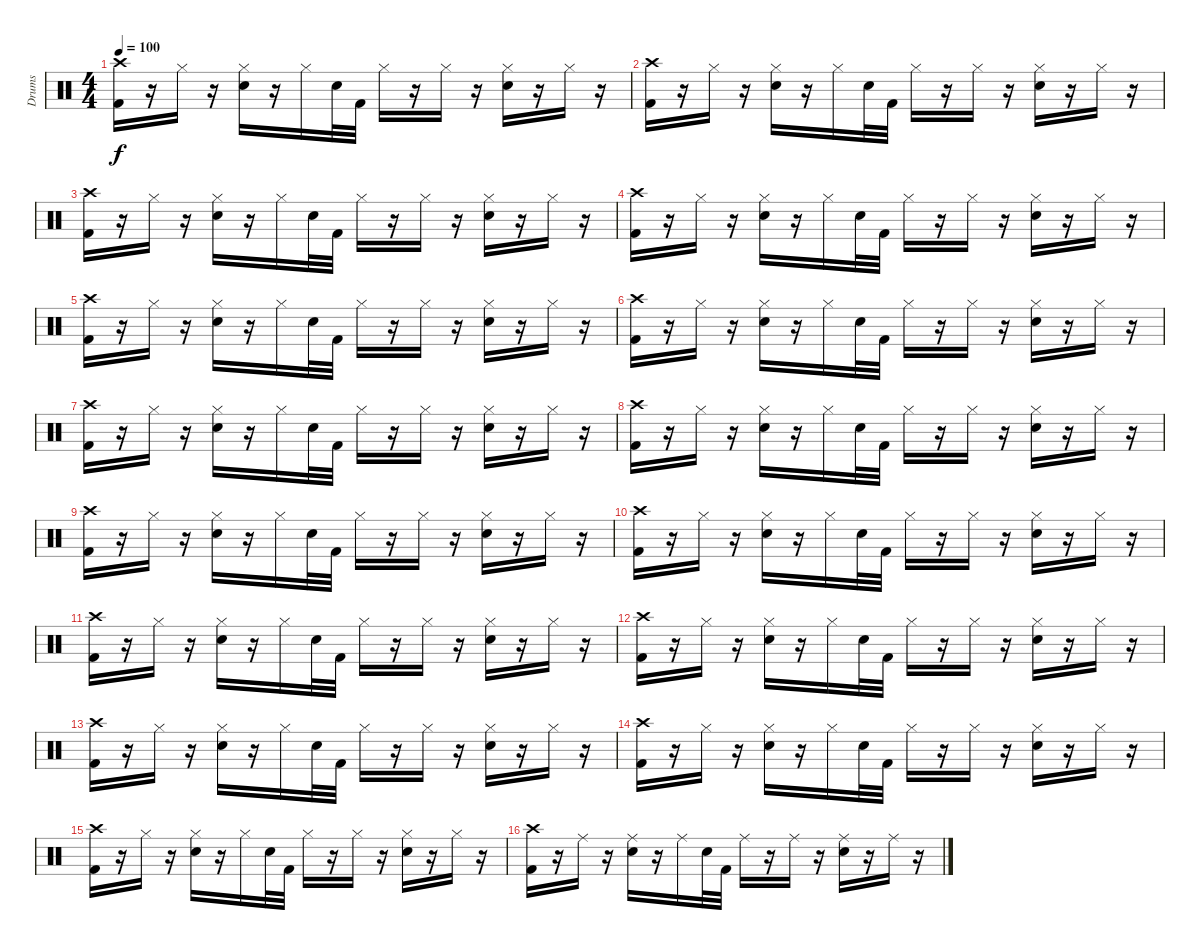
\track ("Drums" "Drums") {instrument percussion}
\staff {score}
\articulation defaults
\ts (4 4)
\tempo 100
\clef neutral
\ks c
("Crash high (hit)" "Kick (hit) 2").16{dy f} r.16 "Hi-Hat (closed)".16 r.16 ("Hi-Hat (closed)" "Snare (hit) 2").16 r.16 "Hi-Hat (closed)".16 "Snare (hit) 2".32 "Kick (hit) 2".32 "Hi-Hat (closed)".16 r.16 "Hi-Hat (closed)".16 r.16 ("Hi-Hat (closed)" "Snare (hit) 2").16 r.16 "Hi-Hat (closed)".16 r.16 |
("Crash high (hit)" "Kick (hit) 2").16 r.16 "Hi-Hat (closed)".16 r.16 ("Hi-Hat (closed)" "Snare (hit) 2").16 r.16 "Hi-Hat (closed)".16 "Snare (hit) 2".32 "Kick (hit) 2".32 "Hi-Hat (closed)".16 r.16 "Hi-Hat (closed)".16 r.16 ("Hi-Hat (closed)" "Snare (hit) 2").16 r.16 "Hi-Hat (closed)".16 r.16 |
("Crash high (hit)" "Kick (hit) 2").16 r.16 "Hi-Hat (closed)".16 r.16 ("Hi-Hat (closed)" "Snare (hit) 2").16 r.16 "Hi-Hat (closed)".16 "Snare (hit) 2".32 "Kick (hit) 2".32 "Hi-Hat (closed)".16 r.16 "Hi-Hat (closed)".16 r.16 ("Hi-Hat (closed)" "Snare (hit) 2").16 r.16 "Hi-Hat (closed)".16 r.16 |
("Crash high (hit)" "Kick (hit) 2").16 r.16 "Hi-Hat (closed)".16 r.16 ("Hi-Hat (closed)" "Snare (hit) 2").16 r.16 "Hi-Hat (closed)".16 "Snare (hit) 2".32 "Kick (hit) 2".32 "Hi-Hat (closed)".16 r.16 "Hi-Hat (closed)".16 r.16 ("Hi-Hat (closed)" "Snare (hit) 2").16 r.16 "Hi-Hat (closed)".16 r.16 |
("Crash high (hit)" "Kick (hit) 2").16 r.16 "Hi-Hat (closed)".16 r.16 ("Hi-Hat (closed)" "Snare (hit) 2").16 r.16 "Hi-Hat (closed)".16 "Snare (hit) 2".32 "Kick (hit) 2".32 "Hi-Hat (closed)".16 r.16 "Hi-Hat (closed)".16 r.16 ("Hi-Hat (closed)" "Snare (hit) 2").16 r.16 "Hi-Hat (closed)".16 r.16 |
("Crash high (hit)" "Kick (hit) 2").16 r.16 "Hi-Hat (closed)".16 r.16 ("Hi-Hat (closed)" "Snare (hit) 2").16 r.16 "Hi-Hat (closed)".16 "Snare (hit) 2".32 "Kick (hit) 2".32 "Hi-Hat (closed)".16 r.16 "Hi-Hat (closed)".16 r.16 ("Hi-Hat (closed)" "Snare (hit) 2").16 r.16 "Hi-Hat (closed)".16 r.16 |
("Crash high (hit)" "Kick (hit) 2").16 r.16 "Hi-Hat (closed)".16 r.16 ("Hi-Hat (closed)" "Snare (hit) 2").16 r.16 "Hi-Hat (closed)".16 "Snare (hit) 2".32 "Kick (hit) 2".32 "Hi-Hat (closed)".16 r.16 "Hi-Hat (closed)".16 r.16 ("Hi-Hat (closed)" "Snare (hit) 2").16 r.16 "Hi-Hat (closed)".16 r.16 |
("Crash high (hit)" "Kick (hit) 2").16 r.16 "Hi-Hat (closed)".16 r.16 ("Hi-Hat (closed)" "Snare (hit) 2").16 r.16 "Hi-Hat (closed)".16 "Snare (hit) 2".32 "Kick (hit) 2".32 "Hi-Hat (closed)".16 r.16 "Hi-Hat (closed)".16 r.16 ("Hi-Hat (closed)" "Snare (hit) 2").16 r.16 "Hi-Hat (closed)".16 r.16 |
("Crash high (hit)" "Kick (hit) 2").16 r.16 "Hi-Hat (closed)".16 r.16 ("Hi-Hat (closed)" "Snare (hit) 2").16 r.16 "Hi-Hat (closed)".16 "Snare (hit) 2".32 "Kick (hit) 2".32 "Hi-Hat (closed)".16 r.16 "Hi-Hat (closed)".16 r.16 ("Hi-Hat (closed)" "Snare (hit) 2").16 r.16 "Hi-Hat (closed)".16 r.16 |
("Crash high (hit)" "Kick (hit) 2").16 r.16 "Hi-Hat (closed)".16 r.16 ("Hi-Hat (closed)" "Snare (hit) 2").16 r.16 "Hi-Hat (closed)".16 "Snare (hit) 2".32 "Kick (hit) 2".32 "Hi-Hat (closed)".16 r.16 "Hi-Hat (closed)".16 r.16 ("Hi-Hat (closed)" "Snare (hit) 2").16 r.16 "Hi-Hat (closed)".16 r.16 |
("Crash high (hit)" "Kick (hit) 2").16 r.16 "Hi-Hat (closed)".16 r.16 ("Hi-Hat (closed)" "Snare (hit) 2").16 r.16 "Hi-Hat (closed)".16 "Snare (hit) 2".32 "Kick (hit) 2".32 "Hi-Hat (closed)".16 r.16 "Hi-Hat (closed)".16 r.16 ("Hi-Hat (closed)" "Snare (hit) 2").16 r.16 "Hi-Hat (closed)".16 r.16 |
("Crash high (hit)" "Kick (hit) 2").16 r.16 "Hi-Hat (closed)".16 r.16 ("Hi-Hat (closed)" "Snare (hit) 2").16 r.16 "Hi-Hat (closed)".16 "Snare (hit) 2".32 "Kick (hit) 2".32 "Hi-Hat (closed)".16 r.16 "Hi-Hat (closed)".16 r.16 ("Hi-Hat (closed)" "Snare (hit) 2").16 r.16 "Hi-Hat (closed)".16 r.16 |
("Crash high (hit)" "Kick (hit) 2").16 r.16 "Hi-Hat (closed)".16 r.16 ("Hi-Hat (closed)" "Snare (hit) 2").16 r.16 "Hi-Hat (closed)".16 "Snare (hit) 2".32 "Kick (hit) 2".32 "Hi-Hat (closed)".16 r.16 "Hi-Hat (closed)".16 r.16 ("Hi-Hat (closed)" "Snare (hit) 2").16 r.16 "Hi-Hat (closed)".16 r.16 |
("Crash high (hit)" "Kick (hit) 2").16 r.16 "Hi-Hat (closed)".16 r.16 ("Hi-Hat (closed)" "Snare (hit) 2").16 r.16 "Hi-Hat (closed)".16 "Snare (hit) 2".32 "Kick (hit) 2".32 "Hi-Hat (closed)".16 r.16 "Hi-Hat (closed)".16 r.16 ("Hi-Hat (closed)" "Snare (hit) 2").16 r.16 "Hi-Hat (closed)".16 r.16 |
("Crash high (hit)" "Kick (hit) 2").16 r.16 "Hi-Hat (closed)".16 r.16 ("Hi-Hat (closed)" "Snare (hit) 2").16 r.16 "Hi-Hat (closed)".16 "Snare (hit) 2".32 "Kick (hit) 2".32 "Hi-Hat (closed)".16 r.16 "Hi-Hat (closed)".16 r.16 ("Hi-Hat (closed)" "Snare (hit) 2").16 r.16 "Hi-Hat (closed)".16 r.16 |
("Crash high (hit)" "Kick (hit) 2").16 r.16 "Ride (middle)".16 r.16 ("Ride (middle)" "Snare (hit) 2").16 r.16 "Ride (middle)".16 "Snare (hit) 2".32 "Kick (hit) 2".32 "Ride (middle)".16 r.16 "Ride (middle)".16 r.16 ("Ride (middle)" "Snare (hit) 2").16 r.16 "Ride (middle)".16 r.16
